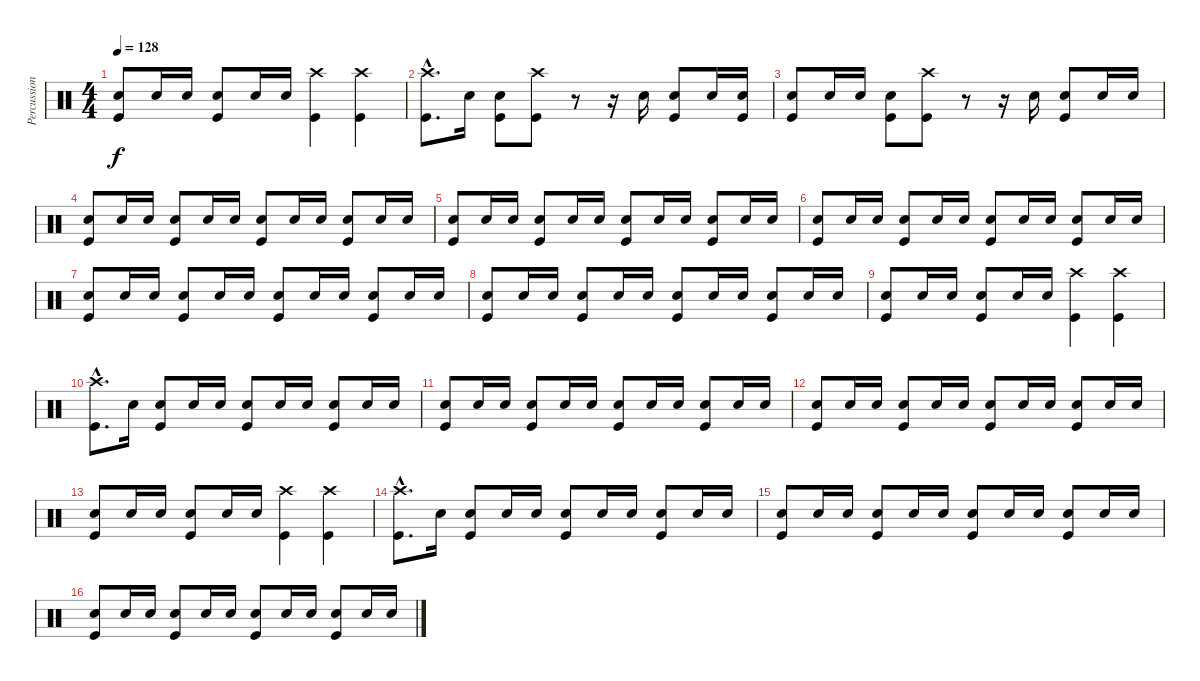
\track ("Percussion" "Percussion") {instrument percussion}
\staff {score}
\articulation defaults
\ts (4 4)
\tempo 128
\clef neutral
\ks c
("Snare (hit) 2" "Kick (hit)").8{dy f} "Snare (hit) 2".16 "Snare (hit) 2".16 ("Snare (hit) 2" "Kick (hit)").8 "Snare (hit) 2".16 "Snare (hit) 2".16 ("Crash high (hit)" "Kick (hit)").4 ("Crash high (hit)" "Kick (hit)").4 |
("Crash high (hit)"{hac} "Kick (hit)"{hac}).8{d} "Snare (hit) 2".16 ("Snare (hit) 2" "Kick (hit)").8 ("Crash high (hit)" "Kick (hit)").8 r.8 r.16 "Snare (hit) 2".16 ("Snare (hit) 2" "Kick (hit)").8 "Snare (hit) 2".16 ("Snare (hit) 2" "Kick (hit)").16 |
("Snare (hit) 2" "Kick (hit)").8 "Snare (hit) 2".16 "Snare (hit) 2".16 ("Snare (hit) 2" "Kick (hit)").8 ("Crash high (hit)" "Kick (hit)").8 r.8 r.16 "Snare (hit) 2".16 ("Snare (hit) 2" "Kick (hit)").8 "Snare (hit) 2".16 "Snare (hit) 2".16 |
("Snare (hit) 2" "Kick (hit)").8 "Snare (hit) 2".16 "Snare (hit) 2".16 ("Snare (hit) 2" "Kick (hit)").8 "Snare (hit) 2".16 "Snare (hit) 2".16 ("Snare (hit) 2" "Kick (hit)").8 "Snare (hit) 2".16 "Snare (hit) 2".16 ("Snare (hit) 2" "Kick (hit)").8 "Snare (hit) 2".16 "Snare (hit) 2".16 |
("Snare (hit) 2" "Kick (hit)").8 "Snare (hit) 2".16 "Snare (hit) 2".16 ("Snare (hit) 2" "Kick (hit)").8 "Snare (hit) 2".16 "Snare (hit) 2".16 ("Snare (hit) 2" "Kick (hit)").8 "Snare (hit) 2".16 "Snare (hit) 2".16 ("Snare (hit) 2" "Kick (hit)").8 "Snare (hit) 2".16 "Snare (hit) 2".16 |
("Snare (hit) 2" "Kick (hit)").8 "Snare (hit) 2".16 "Snare (hit) 2".16 ("Snare (hit) 2" "Kick (hit)").8 "Snare (hit) 2".16 "Snare (hit) 2".16 ("Snare (hit) 2" "Kick (hit)").8 "Snare (hit) 2".16 "Snare (hit) 2".16 ("Snare (hit) 2" "Kick (hit)").8 "Snare (hit) 2".16 "Snare (hit) 2".16 |
("Snare (hit) 2" "Kick (hit)").8 "Snare (hit) 2".16 "Snare (hit) 2".16 ("Snare (hit) 2" "Kick (hit)").8 "Snare (hit) 2".16 "Snare (hit) 2".16 ("Snare (hit) 2" "Kick (hit)").8 "Snare (hit) 2".16 "Snare (hit) 2".16 ("Snare (hit) 2" "Kick (hit)").8 "Snare (hit) 2".16 "Snare (hit) 2".16 |
("Snare (hit) 2" "Kick (hit)").8 "Snare (hit) 2".16 "Snare (hit) 2".16 ("Snare (hit) 2" "Kick (hit)").8 "Snare (hit) 2".16 "Snare (hit) 2".16 ("Snare (hit) 2" "Kick (hit)").8 "Snare (hit) 2".16 "Snare (hit) 2".16 ("Snare (hit) 2" "Kick (hit)").8 "Snare (hit) 2".16 "Snare (hit) 2".16 |
("Snare (hit) 2" "Kick (hit)").8 "Snare (hit) 2".16 "Snare (hit) 2".16 ("Snare (hit) 2" "Kick (hit)").8 "Snare (hit) 2".16 "Snare (hit) 2".16 ("Crash high (hit)" "Kick (hit)").4 ("Crash high (hit)" "Kick (hit)").4 |
("Crash high (hit)"{hac} "Kick (hit)"{hac}).8{d} "Snare (hit) 2".16 ("Snare (hit) 2" "Kick (hit)").8 "Snare (hit) 2".16 "Snare (hit) 2".16 ("Snare (hit) 2" "Kick (hit)").8 "Snare (hit) 2".16 "Snare (hit) 2".16 ("Snare (hit) 2" "Kick (hit)").8 "Snare (hit) 2".16 "Snare (hit) 2".16 |
("Snare (hit) 2" "Kick (hit)").8 "Snare (hit) 2".16 "Snare (hit) 2".16 ("Snare (hit) 2" "Kick (hit)").8 "Snare (hit) 2".16 "Snare (hit) 2".16 ("Snare (hit) 2" "Kick (hit)").8 "Snare (hit) 2".16 "Snare (hit) 2".16 ("Snare (hit) 2" "Kick (hit)").8 "Snare (hit) 2".16 "Snare (hit) 2".16 |
("Snare (hit) 2" "Kick (hit)").8 "Snare (hit) 2".16 "Snare (hit) 2".16 ("Snare (hit) 2" "Kick (hit)").8 "Snare (hit) 2".16 "Snare (hit) 2".16 ("Snare (hit) 2" "Kick (hit)").8 "Snare (hit) 2".16 "Snare (hit) 2".16 ("Snare (hit) 2" "Kick (hit)").8 "Snare (hit) 2".16 "Snare (hit) 2".16 |
("Snare (hit) 2" "Kick (hit)").8 "Snare (hit) 2".16 "Snare (hit) 2".16 ("Snare (hit) 2" "Kick (hit)").8 "Snare (hit) 2".16 "Snare (hit) 2".16 ("Crash high (hit)" "Kick (hit)").4 ("Crash high (hit)" "Kick (hit)").4 |
("Crash high (hit)"{hac} "Kick (hit)"{hac}).8{d} "Snare (hit) 2".16 ("Snare (hit) 2" "Kick (hit)").8 "Snare (hit) 2".16 "Snare (hit) 2".16 ("Snare (hit) 2" "Kick (hit)").8 "Snare (hit) 2".16 "Snare (hit) 2".16 ("Snare (hit) 2" "Kick (hit)").8 "Snare (hit) 2".16 "Snare (hit) 2".16 |
("Snare (hit) 2" "Kick (hit)").8 "Snare (hit) 2".16 "Snare (hit) 2".16 ("Snare (hit) 2" "Kick (hit)").8 "Snare (hit) 2".16 "Snare (hit) 2".16 ("Snare (hit) 2" "Kick (hit)").8 "Snare (hit) 2".16 "Snare (hit) 2".16 ("Snare (hit) 2" "Kick (hit)").8 "Snare (hit) 2".16 "Snare (hit) 2".16 |
("Snare (hit) 2" "Kick (hit)").8 "Snare (hit) 2".16 "Snare (hit) 2".16 ("Snare (hit) 2" "Kick (hit)").8 "Snare (hit) 2".16 "Snare (hit) 2".16 ("Snare (hit) 2" "Kick (hit)").8 "Snare (hit) 2".16 "Snare (hit) 2".16 ("Snare (hit) 2" "Kick (hit)").8 "Snare (hit) 2".16 "Snare (hit) 2".16
